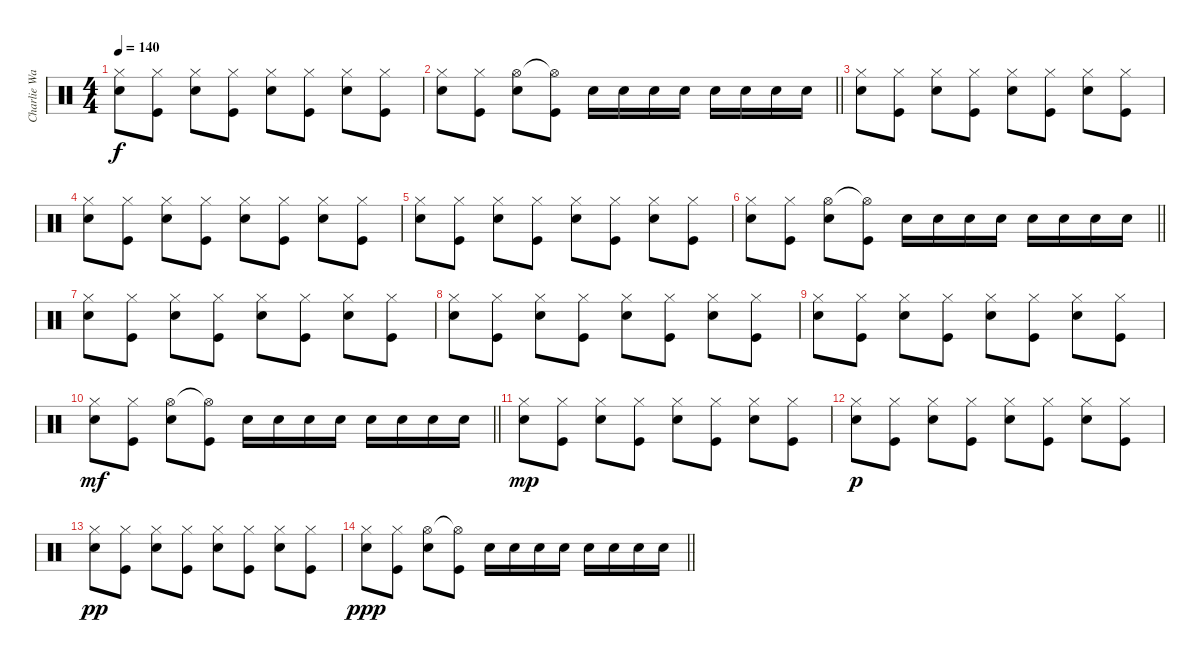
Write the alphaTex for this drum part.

\track ("Charlie Watts" "Charlie Wa") {instrument percussion}
\staff {score}
\articulation defaults
\ts (4 4)
\tempo 140
\clef neutral
\ks c
("Snare (hit) 2" "Hi-Hat (closed)").8{dy f} ("Kick (hit)" "Hi-Hat (closed)").8 ("Snare (hit) 2" "Hi-Hat (closed)").8 ("Kick (hit)" "Hi-Hat (closed)").8 ("Snare (hit) 2" "Hi-Hat (closed)").8 ("Kick (hit)" "Hi-Hat (closed)").8 ("Snare (hit) 2" "Hi-Hat (closed)").8 ("Kick (hit)" "Hi-Hat (closed)").8 |
\barLineRight lightlight
("Snare (hit) 2" "Hi-Hat (closed)").8 ("Kick (hit)" "Hi-Hat (closed)").8 ("Snare (hit) 2" "Hi-Hat (open)").8 ("Kick (hit)" "Hi-Hat (open)"{t}).8 "Snare (hit) 2".16 "Snare (hit) 2".16 "Snare (hit) 2".16 "Snare (hit) 2".16 "Snare (hit) 2".16 "Snare (hit) 2".16 "Snare (hit) 2".16 "Snare (hit) 2".16 |
("Snare (hit) 2" "Hi-Hat (closed)").8 ("Kick (hit)" "Hi-Hat (closed)").8 ("Snare (hit) 2" "Hi-Hat (closed)").8 ("Kick (hit)" "Hi-Hat (closed)").8 ("Snare (hit) 2" "Hi-Hat (closed)").8 ("Kick (hit)" "Hi-Hat (closed)").8 ("Snare (hit) 2" "Hi-Hat (closed)").8 ("Kick (hit)" "Hi-Hat (closed)").8 |
("Snare (hit) 2" "Hi-Hat (closed)").8 ("Kick (hit)" "Hi-Hat (closed)").8 ("Snare (hit) 2" "Hi-Hat (closed)").8 ("Kick (hit)" "Hi-Hat (closed)").8 ("Snare (hit) 2" "Hi-Hat (closed)").8 ("Kick (hit)" "Hi-Hat (closed)").8 ("Snare (hit) 2" "Hi-Hat (closed)").8 ("Kick (hit)" "Hi-Hat (closed)").8 |
("Snare (hit) 2" "Hi-Hat (closed)").8 ("Kick (hit)" "Hi-Hat (closed)").8 ("Snare (hit) 2" "Hi-Hat (closed)").8 ("Kick (hit)" "Hi-Hat (closed)").8 ("Snare (hit) 2" "Hi-Hat (closed)").8 ("Kick (hit)" "Hi-Hat (closed)").8 ("Snare (hit) 2" "Hi-Hat (closed)").8 ("Kick (hit)" "Hi-Hat (closed)").8 |
\barLineRight lightlight
("Snare (hit) 2" "Hi-Hat (closed)").8 ("Kick (hit)" "Hi-Hat (closed)").8 ("Snare (hit) 2" "Hi-Hat (open)").8 ("Kick (hit)" "Hi-Hat (open)"{t}).8 "Snare (hit) 2".16 "Snare (hit) 2".16 "Snare (hit) 2".16 "Snare (hit) 2".16 "Snare (hit) 2".16 "Snare (hit) 2".16 "Snare (hit) 2".16 "Snare (hit) 2".16 |
("Snare (hit) 2" "Hi-Hat (closed)").8 ("Kick (hit)" "Hi-Hat (closed)").8 ("Snare (hit) 2" "Hi-Hat (closed)").8 ("Kick (hit)" "Hi-Hat (closed)").8 ("Snare (hit) 2" "Hi-Hat (closed)").8 ("Kick (hit)" "Hi-Hat (closed)").8 ("Snare (hit) 2" "Hi-Hat (closed)").8 ("Kick (hit)" "Hi-Hat (closed)").8 |
("Snare (hit) 2" "Hi-Hat (closed)").8 ("Kick (hit)" "Hi-Hat (closed)").8 ("Snare (hit) 2" "Hi-Hat (closed)").8 ("Kick (hit)" "Hi-Hat (closed)").8 ("Snare (hit) 2" "Hi-Hat (closed)").8 ("Kick (hit)" "Hi-Hat (closed)").8 ("Snare (hit) 2" "Hi-Hat (closed)").8 ("Kick (hit)" "Hi-Hat (closed)").8 |
("Snare (hit) 2" "Hi-Hat (closed)").8 ("Kick (hit)" "Hi-Hat (closed)").8 ("Snare (hit) 2" "Hi-Hat (closed)").8 ("Kick (hit)" "Hi-Hat (closed)").8 ("Snare (hit) 2" "Hi-Hat (closed)").8 ("Kick (hit)" "Hi-Hat (closed)").8 ("Snare (hit) 2" "Hi-Hat (closed)").8 ("Kick (hit)" "Hi-Hat (closed)").8 |
\barLineRight lightlight
("Snare (hit) 2" "Hi-Hat (closed)").8{dy mf} ("Kick (hit)" "Hi-Hat (closed)").8 ("Snare (hit) 2" "Hi-Hat (open)").8 ("Kick (hit)" "Hi-Hat (open)"{t}).8 "Snare (hit) 2".16 "Snare (hit) 2".16 "Snare (hit) 2".16 "Snare (hit) 2".16 "Snare (hit) 2".16 "Snare (hit) 2".16 "Snare (hit) 2".16 "Snare (hit) 2".16 |
("Snare (hit) 2" "Hi-Hat (closed)").8{dy mp} ("Kick (hit)" "Hi-Hat (closed)").8 ("Snare (hit) 2" "Hi-Hat (closed)").8 ("Kick (hit)" "Hi-Hat (closed)").8 ("Snare (hit) 2" "Hi-Hat (closed)").8 ("Kick (hit)" "Hi-Hat (closed)").8 ("Snare (hit) 2" "Hi-Hat (closed)").8 ("Kick (hit)" "Hi-Hat (closed)").8 |
("Snare (hit) 2" "Hi-Hat (closed)").8{dy p} ("Kick (hit)" "Hi-Hat (closed)").8 ("Snare (hit) 2" "Hi-Hat (closed)").8 ("Kick (hit)" "Hi-Hat (closed)").8 ("Snare (hit) 2" "Hi-Hat (closed)").8 ("Kick (hit)" "Hi-Hat (closed)").8 ("Snare (hit) 2" "Hi-Hat (closed)").8 ("Kick (hit)" "Hi-Hat (closed)").8 |
("Snare (hit) 2" "Hi-Hat (closed)").8{dy pp} ("Kick (hit)" "Hi-Hat (closed)").8 ("Snare (hit) 2" "Hi-Hat (closed)").8 ("Kick (hit)" "Hi-Hat (closed)").8 ("Snare (hit) 2" "Hi-Hat (closed)").8 ("Kick (hit)" "Hi-Hat (closed)").8 ("Snare (hit) 2" "Hi-Hat (closed)").8 ("Kick (hit)" "Hi-Hat (closed)").8 |
\barLineRight lightlight
("Snare (hit) 2" "Hi-Hat (closed)").8{dy ppp} ("Kick (hit)" "Hi-Hat (closed)").8 ("Snare (hit) 2" "Hi-Hat (open)").8 ("Kick (hit)" "Hi-Hat (open)"{t}).8 "Snare (hit) 2".16 "Snare (hit) 2".16 "Snare (hit) 2".16 "Snare (hit) 2".16 "Snare (hit) 2".16 "Snare (hit) 2".16 "Snare (hit) 2".16 "Snare (hit) 2".16
